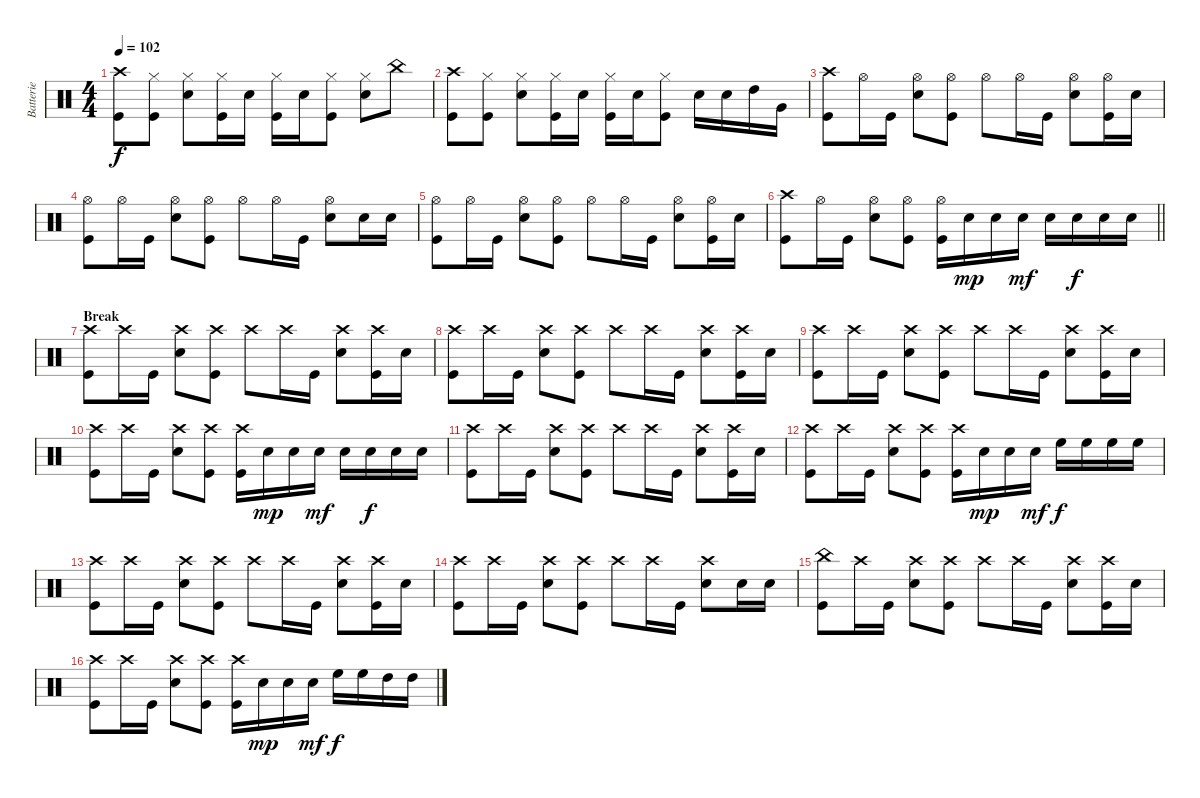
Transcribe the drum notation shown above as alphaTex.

\track ("Batterie" "Batterie") {instrument percussion}
\staff {score}
\articulation defaults
\ts (4 4)
\tempo 102
\clef neutral
\ks c
("Kick (hit)" "Crash high (hit)").8{dy f} ("Kick (hit)" "Hi-Hat (closed)").8 ("Snare (hit) 2" "Hi-Hat (closed)").8 ("Kick (hit)" "Hi-Hat (closed)").16 "Snare (hit) 2".16 ("Kick (hit)" "Hi-Hat (closed)").16 "Snare (hit) 2".16 ("Kick (hit)" "Hi-Hat (closed)").8 ("Snare (hit) 2" "Hi-Hat (closed)").8 "China (hit)".8 |
("Kick (hit)" "Crash high (hit)").8 ("Kick (hit)" "Hi-Hat (closed)").8 ("Snare (hit) 2" "Hi-Hat (closed)").8 ("Kick (hit)" "Hi-Hat (closed)").16 "Snare (hit) 2".16 ("Kick (hit)" "Hi-Hat (closed)").16 "Snare (hit) 2".16 ("Kick (hit)" "Hi-Hat (closed)").8 "Snare (hit) 2".16 "Snare (hit) 2".16 "High Tom (hit)".16 "Very Low Tom (hit)".16 |
("Kick (hit)" "Crash high (hit)").8 "Hi-Hat (open)".16 "Kick (hit)".16 ("Hi-Hat (open)" "Snare (hit) 2").8 ("Hi-Hat (open)" "Kick (hit)").8 "Hi-Hat (open)".8 "Hi-Hat (open)".16 "Kick (hit)".16 ("Hi-Hat (open)" "Snare (hit) 2").8 ("Hi-Hat (open)" "Kick (hit)").16 "Snare (hit) 2".16 |
("Kick (hit)" "Hi-Hat (open)").8 "Hi-Hat (open)".16 "Kick (hit)".16 ("Hi-Hat (open)" "Snare (hit) 2").8 ("Hi-Hat (open)" "Kick (hit)").8 "Hi-Hat (open)".8 "Hi-Hat (open)".16 "Kick (hit)".16 ("Hi-Hat (open)" "Snare (hit) 2").8 "Snare (hit) 2".16 "Snare (hit) 2".16 |
("Kick (hit)" "Hi-Hat (open)").8 "Hi-Hat (open)".16 "Kick (hit)".16 ("Hi-Hat (open)" "Snare (hit) 2").8 ("Hi-Hat (open)" "Kick (hit)").8 "Hi-Hat (open)".8 "Hi-Hat (open)".16 "Kick (hit)".16 ("Hi-Hat (open)" "Snare (hit) 2").8 ("Hi-Hat (open)" "Kick (hit)").16 "Snare (hit) 2".16 |
\barLineRight lightlight
("Kick (hit)" "Crash high (hit)").8 "Hi-Hat (open)".16 "Kick (hit)".16 ("Hi-Hat (open)" "Snare (hit) 2").8 ("Hi-Hat (open)" "Kick (hit)").8 ("Kick (hit)" "Hi-Hat (open)").16 "Snare (hit) 2".16{dy mp} "Snare (hit) 2".16 "Snare (hit) 2".16{dy mf} "Snare (hit) 2".16 "Snare (hit) 2".16{dy f} "Snare (hit) 2".16 "Snare (hit) 2".16 |
\section ("" "Break")
("Kick (hit)" "Crash high (hit)").8 "Crash high (hit)".16 "Kick (hit)".16 ("Crash high (hit)" "Snare (hit) 2").8 ("Crash high (hit)" "Kick (hit)").8 "Crash high (hit)".8 "Crash high (hit)".16 "Kick (hit)".16 ("Crash high (hit)" "Snare (hit) 2").8 ("Crash high (hit)" "Kick (hit)").16 "Snare (hit) 2".16 |
("Kick (hit)" "Crash high (hit)").8 "Crash high (hit)".16 "Kick (hit)".16 ("Crash high (hit)" "Snare (hit) 2").8 ("Crash high (hit)" "Kick (hit)").8 "Crash high (hit)".8 "Crash high (hit)".16 "Kick (hit)".16 ("Crash high (hit)" "Snare (hit) 2").8 ("Crash high (hit)" "Kick (hit)").16 "Snare (hit) 2".16 |
("Kick (hit)" "Crash high (hit)").8 "Crash high (hit)".16 "Kick (hit)".16 ("Crash high (hit)" "Snare (hit) 2").8 ("Crash high (hit)" "Kick (hit)").8 "Crash high (hit)".8 "Crash high (hit)".16 "Kick (hit)".16 ("Crash high (hit)" "Snare (hit) 2").8 ("Crash high (hit)" "Kick (hit)").16 "Snare (hit) 2".16 |
("Kick (hit)" "Crash high (hit)").8 "Crash high (hit)".16 "Kick (hit)".16 ("Crash high (hit)" "Snare (hit) 2").8 ("Crash high (hit)" "Kick (hit)").8 ("Kick (hit)" "Crash high (hit)").16 "Snare (hit) 2".16{dy mp} "Snare (hit) 2".16 "Snare (hit) 2".16{dy mf} "Snare (hit) 2".16 "Snare (hit) 2".16{dy f} "Snare (hit) 2".16 "Snare (hit) 2".16 |
("Kick (hit)" "Crash high (hit)").8 "Crash high (hit)".16 "Kick (hit)".16 ("Crash high (hit)" "Snare (hit) 2").8 ("Crash high (hit)" "Kick (hit)").8 "Crash high (hit)".8 "Crash high (hit)".16 "Kick (hit)".16 ("Crash high (hit)" "Snare (hit) 2").8 ("Crash high (hit)" "Kick (hit)").16 "Snare (hit) 2".16 |
("Kick (hit)" "Crash high (hit)").8 "Crash high (hit)".16 "Kick (hit)".16 ("Crash high (hit)" "Snare (hit) 2").8 ("Crash high (hit)" "Kick (hit)").8 ("Kick (hit)" "Crash high (hit)").16 "Snare (hit) 2".16{dy mp} "Snare (hit) 2".16 "Snare (hit) 2".16{dy mf} "High Floor Tom (hit)".16{dy f} "High Floor Tom (hit)".16 "High Floor Tom (hit)".16 "High Floor Tom (hit)".16 |
("Kick (hit)" "Crash high (hit)").8 "Crash high (hit)".16 "Kick (hit)".16 ("Crash high (hit)" "Snare (hit) 2").8 ("Crash high (hit)" "Kick (hit)").8 "Crash high (hit)".8 "Crash high (hit)".16 "Kick (hit)".16 ("Crash high (hit)" "Snare (hit) 2").8 ("Crash high (hit)" "Kick (hit)").16 "Snare (hit) 2".16 |
("Kick (hit)" "Crash high (hit)").8 "Crash high (hit)".16 "Kick (hit)".16 ("Crash high (hit)" "Snare (hit) 2").8 ("Crash high (hit)" "Kick (hit)").8 "Crash high (hit)".8 "Crash high (hit)".16 "Kick (hit)".16 ("Crash high (hit)" "Snare (hit) 2").8 "Snare (hit) 2".16 "Snare (hit) 2".16 |
("Kick (hit)" "China (hit)").8 "Crash high (hit)".16 "Kick (hit)".16 ("Crash high (hit)" "Snare (hit) 2").8 ("Crash high (hit)" "Kick (hit)").8 "Crash high (hit)".8 "Crash high (hit)".16 "Kick (hit)".16 ("Crash high (hit)" "Snare (hit) 2").8 ("Crash high (hit)" "Kick (hit)").16 "Snare (hit) 2".16 |
("Kick (hit)" "Crash high (hit)").8 "Crash high (hit)".16 "Kick (hit)".16 ("Crash high (hit)" "Snare (hit) 2").8 ("Crash high (hit)" "Kick (hit)").8 ("Kick (hit)" "Crash high (hit)").16 "Snare (hit) 2".16{dy mp} "Snare (hit) 2".16 "Snare (hit) 2".16{dy mf} "High Floor Tom (hit)".16{dy f} "High Floor Tom (hit)".16 "High Tom (hit)".16 "High Tom (hit)".16
